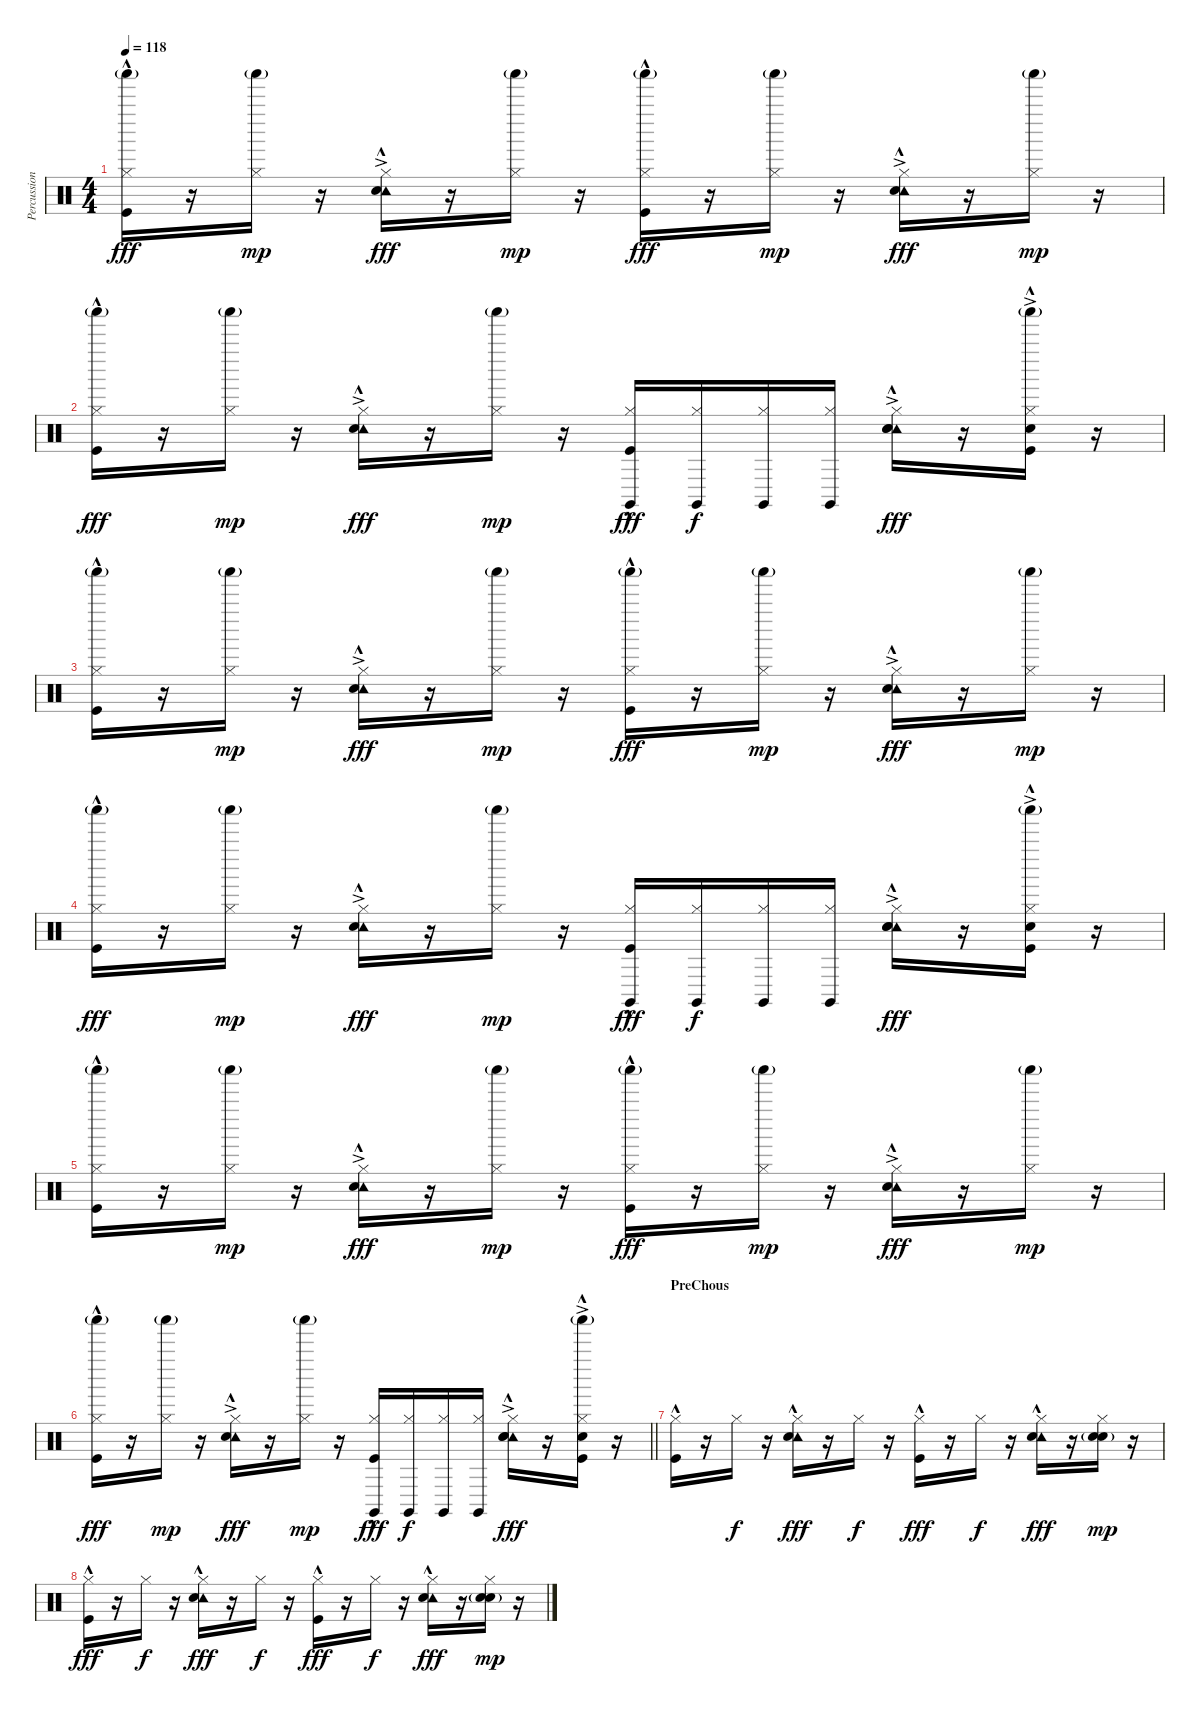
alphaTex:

\track ("Percussion" "Percussion") {instrument percussion}
\staff {score}
\articulation defaults
\ts (4 4)
\tempo 118
\clef neutral
\ks c
("Shaker (hit)"{g} "Hi-Hat (closed)" "Kick (hit)"{hac}).16{dy fff} r.16 ("Shaker (hit)"{g} "Hi-Hat (closed)").16{dy mp} r.16 ("Tambourine (hit)"{ac} "Hi-Hat (closed)" "Snare (hit) 2"{hac}).16{dy fff} r.16 ("Shaker (hit)"{g} "Hi-Hat (closed)").16{dy mp} r.16 ("Shaker (hit)"{g} "Hi-Hat (closed)" "Kick (hit)"{hac}).16{dy fff} r.16 ("Shaker (hit)"{g} "Hi-Hat (closed)").16{dy mp} r.16 ("Tambourine (hit)"{ac} "Hi-Hat (closed)" "Snare (hit) 2"{hac}).16{dy fff} r.16 ("Shaker (hit)"{g} "Hi-Hat (closed)").16{dy mp} r.16 |
("Shaker (hit)"{g} "Hi-Hat (closed)" "Kick (hit)"{hac}).16{dy fff} r.16 ("Shaker (hit)"{g} "Hi-Hat (closed)").16{dy mp} r.16 ("Tambourine (hit)"{ac} "Hi-Hat (closed)" "Snare (hit) 2"{hac}).16{dy fff} r.16 ("Shaker (hit)"{g} "Hi-Hat (closed)").16{dy mp} r.16 ("Claves (hit)" "Hi-Hat (closed)" "Kick (hit)"{hac}).16{dy fff} ("Claves (hit)" "Hi-Hat (closed)").16{dy f} ("Claves (hit)" "Hi-Hat (closed)").16 ("Claves (hit)" "Hi-Hat (closed)").16 ("Tambourine (hit)"{ac} "Hi-Hat (closed)" "Hand Clap (hit)"{ac} "Snare (hit) 2"{hac}).16{dy fff} r.16 ("Shaker (hit)"{g} "Hi-Hat (closed)" "Hand Clap (hit)"{ac} "Kick (hit)"{hac}).16 r.16 |
("Shaker (hit)"{g} "Hi-Hat (closed)" "Kick (hit)"{hac}).16 r.16 ("Shaker (hit)"{g} "Hi-Hat (closed)").16{dy mp} r.16 ("Tambourine (hit)"{ac} "Hi-Hat (closed)" "Snare (hit) 2"{hac}).16{dy fff} r.16 ("Shaker (hit)"{g} "Hi-Hat (closed)").16{dy mp} r.16 ("Shaker (hit)"{g} "Hi-Hat (closed)" "Kick (hit)"{hac}).16{dy fff} r.16 ("Shaker (hit)"{g} "Hi-Hat (closed)").16{dy mp} r.16 ("Tambourine (hit)"{ac} "Hi-Hat (closed)" "Snare (hit) 2"{hac}).16{dy fff} r.16 ("Shaker (hit)"{g} "Hi-Hat (closed)").16{dy mp} r.16 |
("Shaker (hit)"{g} "Hi-Hat (closed)" "Kick (hit)"{hac}).16{dy fff} r.16 ("Shaker (hit)"{g} "Hi-Hat (closed)").16{dy mp} r.16 ("Tambourine (hit)"{ac} "Hi-Hat (closed)" "Snare (hit) 2"{hac}).16{dy fff} r.16 ("Shaker (hit)"{g} "Hi-Hat (closed)").16{dy mp} r.16 ("Claves (hit)" "Hi-Hat (closed)" "Kick (hit)"{hac}).16{dy fff} ("Claves (hit)" "Hi-Hat (closed)").16{dy f} ("Claves (hit)" "Hi-Hat (closed)").16 ("Claves (hit)" "Hi-Hat (closed)").16 ("Tambourine (hit)"{ac} "Hi-Hat (closed)" "Hand Clap (hit)"{ac} "Snare (hit) 2"{hac}).16{dy fff} r.16 ("Shaker (hit)"{g} "Hi-Hat (closed)" "Hand Clap (hit)"{ac} "Kick (hit)"{hac}).16 r.16 |
("Shaker (hit)"{g} "Hi-Hat (closed)" "Kick (hit)"{hac}).16 r.16 ("Shaker (hit)"{g} "Hi-Hat (closed)").16{dy mp} r.16 ("Tambourine (hit)"{ac} "Hi-Hat (closed)" "Snare (hit) 2"{hac}).16{dy fff} r.16 ("Shaker (hit)"{g} "Hi-Hat (closed)").16{dy mp} r.16 ("Shaker (hit)"{g} "Hi-Hat (closed)" "Kick (hit)"{hac}).16{dy fff} r.16 ("Shaker (hit)"{g} "Hi-Hat (closed)").16{dy mp} r.16 ("Tambourine (hit)"{ac} "Hi-Hat (closed)" "Snare (hit) 2"{hac}).16{dy fff} r.16 ("Shaker (hit)"{g} "Hi-Hat (closed)").16{dy mp} r.16 |
\barLineRight lightlight
("Shaker (hit)"{g} "Hi-Hat (closed)" "Kick (hit)"{hac}).16{dy fff} r.16 ("Shaker (hit)"{g} "Hi-Hat (closed)").16{dy mp} r.16 ("Tambourine (hit)"{ac} "Hi-Hat (closed)" "Snare (hit) 2"{hac}).16{dy fff} r.16 ("Shaker (hit)"{g} "Hi-Hat (closed)").16{dy mp} r.16 ("Claves (hit)" "Hi-Hat (closed)" "Kick (hit)"{hac}).16{dy fff} ("Claves (hit)" "Hi-Hat (closed)").16{dy f} ("Claves (hit)" "Hi-Hat (closed)").16 ("Claves (hit)" "Hi-Hat (closed)").16 ("Tambourine (hit)"{ac} "Hi-Hat (closed)" "Hand Clap (hit)"{ac} "Snare (hit) 2"{hac}).16{dy fff} r.16 ("Shaker (hit)"{g} "Hi-Hat (closed)" "Hand Clap (hit)"{ac} "Kick (hit)"{hac}).16 r.16 |
\section ("" "PreChous")
("Hi-Hat (closed)" "Kick (hit)"{hac}).16 r.16 "Hi-Hat (closed)".16{dy f} r.16 ("Tambourine (hit)" "Hi-Hat (closed)" "Snare (hit) 2"{hac}).16{dy fff} r.16 "Hi-Hat (closed)".16{dy f} r.16 ("Hi-Hat (closed)" "Kick (hit)"{hac}).16{dy fff} r.16 "Hi-Hat (closed)".16{dy f} r.16 ("Tambourine (hit)" "Hi-Hat (closed)" "Snare (hit) 2"{hac}).16{dy fff} r.16 ("Hi-Hat (closed)" "Hand Clap (hit)"{g} "Snare (hit) 2"{g}).16{dy mp} r.16 |
("Hi-Hat (closed)" "Kick (hit)"{hac}).16{dy fff} r.16 "Hi-Hat (closed)".16{dy f} r.16 ("Tambourine (hit)" "Hi-Hat (closed)" "Snare (hit) 2"{hac}).16{dy fff} r.16 "Hi-Hat (closed)".16{dy f} r.16 ("Hi-Hat (closed)" "Kick (hit)"{hac}).16{dy fff} r.16 "Hi-Hat (closed)".16{dy f} r.16 ("Tambourine (hit)" "Hi-Hat (closed)" "Snare (hit) 2"{hac}).16{dy fff} r.16 ("Hi-Hat (closed)" "Hand Clap (hit)" "Snare (hit) 2"{g}).16{dy mp} r.16
